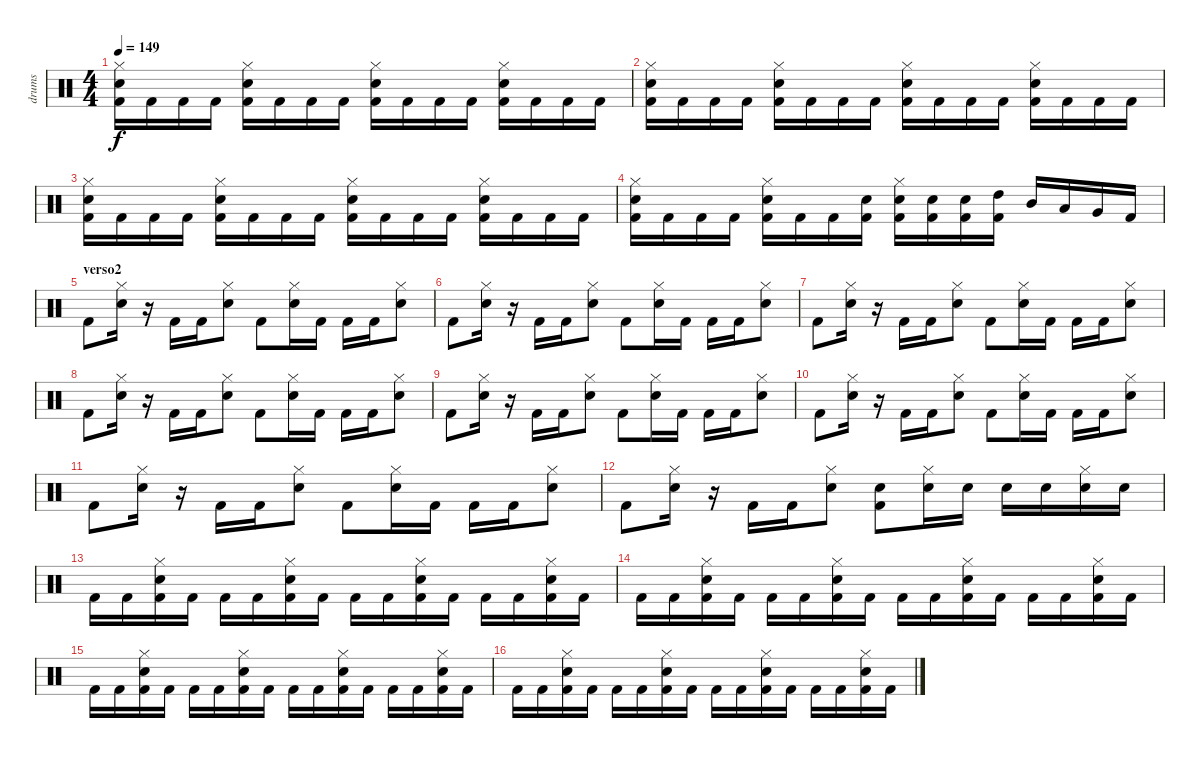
\track ("drums" "drums") {instrument percussion}
\staff {score}
\articulation defaults
\ts (4 4)
\tempo 149
\clef neutral
\ks c
("Kick (hit) 2" "Electric Snare (hit)" "Hi-Hat (closed)").16{dy f} "Kick (hit) 2".16 "Kick (hit) 2".16 "Kick (hit) 2".16 ("Kick (hit) 2" "Electric Snare (hit)" "Hi-Hat (closed)").16 "Kick (hit) 2".16 "Kick (hit) 2".16 "Kick (hit) 2".16 ("Kick (hit) 2" "Electric Snare (hit)" "Hi-Hat (closed)").16 "Kick (hit) 2".16 "Kick (hit) 2".16 "Kick (hit) 2".16 ("Kick (hit) 2" "Electric Snare (hit)" "Hi-Hat (closed)").16 "Kick (hit) 2".16 "Kick (hit) 2".16 "Kick (hit) 2".16 |
("Kick (hit) 2" "Electric Snare (hit)" "Hi-Hat (closed)").16 "Kick (hit) 2".16 "Kick (hit) 2".16 "Kick (hit) 2".16 ("Kick (hit) 2" "Electric Snare (hit)" "Hi-Hat (closed)").16 "Kick (hit) 2".16 "Kick (hit) 2".16 "Kick (hit) 2".16 ("Kick (hit) 2" "Electric Snare (hit)" "Hi-Hat (closed)").16 "Kick (hit) 2".16 "Kick (hit) 2".16 "Kick (hit) 2".16 ("Kick (hit) 2" "Electric Snare (hit)" "Hi-Hat (closed)").16 "Kick (hit) 2".16 "Kick (hit) 2".16 "Kick (hit) 2".16 |
("Kick (hit) 2" "Electric Snare (hit)" "Hi-Hat (closed)").16 "Kick (hit) 2".16 "Kick (hit) 2".16 "Kick (hit) 2".16 ("Kick (hit) 2" "Electric Snare (hit)" "Hi-Hat (closed)").16 "Kick (hit) 2".16 "Kick (hit) 2".16 "Kick (hit) 2".16 ("Kick (hit) 2" "Electric Snare (hit)" "Hi-Hat (closed)").16 "Kick (hit) 2".16 "Kick (hit) 2".16 "Kick (hit) 2".16 ("Kick (hit) 2" "Electric Snare (hit)" "Hi-Hat (closed)").16 "Kick (hit) 2".16 "Kick (hit) 2".16 "Kick (hit) 2".16 |
("Kick (hit) 2" "Electric Snare (hit)" "Hi-Hat (closed)").16 "Kick (hit) 2".16 "Kick (hit) 2".16 "Kick (hit) 2".16 ("Kick (hit) 2" "Electric Snare (hit)" "Hi-Hat (closed)").16 "Kick (hit) 2".16 "Kick (hit) 2".16 ("Kick (hit) 2" "Electric Snare (hit)").16 ("Kick (hit) 2" "Electric Snare (hit)" "Hi-Hat (closed)").16 ("Kick (hit) 2" "Electric Snare (hit)").16 ("Kick (hit) 2" "Electric Snare (hit)").16 ("Kick (hit) 2" "High Tom (hit)").16 "Mid Tom (hit)".16 "Low Tom (hit)".16 "Very Low Tom (hit)".16 "Kick (hit) 2".16 |
\section ("" "verso2")
"Kick (hit) 2".8 ("Electric Snare (hit)" "Hi-Hat (closed)").16 r.16 "Kick (hit) 2".16 "Kick (hit) 2".16 ("Electric Snare (hit)" "Hi-Hat (closed)").8 "Kick (hit) 2".8 ("Electric Snare (hit)" "Hi-Hat (closed)").16 "Kick (hit) 2".16 "Kick (hit) 2".16 "Kick (hit) 2".16 ("Electric Snare (hit)" "Hi-Hat (closed)").8 |
"Kick (hit) 2".8 ("Electric Snare (hit)" "Hi-Hat (closed)").16 r.16 "Kick (hit) 2".16 "Kick (hit) 2".16 ("Electric Snare (hit)" "Hi-Hat (closed)").8 "Kick (hit) 2".8 ("Electric Snare (hit)" "Hi-Hat (closed)").16 "Kick (hit) 2".16 "Kick (hit) 2".16 "Kick (hit) 2".16 ("Electric Snare (hit)" "Hi-Hat (closed)").8 |
"Kick (hit) 2".8 ("Electric Snare (hit)" "Hi-Hat (closed)").16 r.16 "Kick (hit) 2".16 "Kick (hit) 2".16 ("Electric Snare (hit)" "Hi-Hat (closed)").8 "Kick (hit) 2".8 ("Electric Snare (hit)" "Hi-Hat (closed)").16 "Kick (hit) 2".16 "Kick (hit) 2".16 "Kick (hit) 2".16 ("Electric Snare (hit)" "Hi-Hat (closed)").8 |
"Kick (hit) 2".8 ("Electric Snare (hit)" "Hi-Hat (closed)").16 r.16 "Kick (hit) 2".16 "Kick (hit) 2".16 ("Electric Snare (hit)" "Hi-Hat (closed)").8 "Kick (hit) 2".8 ("Electric Snare (hit)" "Hi-Hat (closed)").16 "Kick (hit) 2".16 "Kick (hit) 2".16 "Kick (hit) 2".16 ("Electric Snare (hit)" "Hi-Hat (closed)").8 |
"Kick (hit) 2".8 ("Electric Snare (hit)" "Hi-Hat (closed)").16 r.16 "Kick (hit) 2".16 "Kick (hit) 2".16 ("Electric Snare (hit)" "Hi-Hat (closed)").8 "Kick (hit) 2".8 ("Electric Snare (hit)" "Hi-Hat (closed)").16 "Kick (hit) 2".16 "Kick (hit) 2".16 "Kick (hit) 2".16 ("Electric Snare (hit)" "Hi-Hat (closed)").8 |
"Kick (hit) 2".8 ("Electric Snare (hit)" "Hi-Hat (closed)").16 r.16 "Kick (hit) 2".16 "Kick (hit) 2".16 ("Electric Snare (hit)" "Hi-Hat (closed)").8 "Kick (hit) 2".8 ("Electric Snare (hit)" "Hi-Hat (closed)").16 "Kick (hit) 2".16 "Kick (hit) 2".16 "Kick (hit) 2".16 ("Electric Snare (hit)" "Hi-Hat (closed)").8 |
"Kick (hit) 2".8 ("Electric Snare (hit)" "Hi-Hat (closed)").16 r.16 "Kick (hit) 2".16 "Kick (hit) 2".16 ("Electric Snare (hit)" "Hi-Hat (closed)").8 "Kick (hit) 2".8 ("Electric Snare (hit)" "Hi-Hat (closed)").16 "Kick (hit) 2".16 "Kick (hit) 2".16 "Kick (hit) 2".16 ("Electric Snare (hit)" "Hi-Hat (closed)").8 |
"Kick (hit) 2".8 ("Electric Snare (hit)" "Hi-Hat (closed)").16 r.16 "Kick (hit) 2".16 "Kick (hit) 2".16 ("Electric Snare (hit)" "Hi-Hat (closed)").8 ("Kick (hit) 2" "Electric Snare (hit)").8 ("Electric Snare (hit)" "Hi-Hat (closed)").16 "Electric Snare (hit)".16 "Electric Snare (hit)".16 "Electric Snare (hit)".16 ("Electric Snare (hit)" "Hi-Hat (closed)").16 "Electric Snare (hit)".16 |
"Kick (hit) 2".16 "Kick (hit) 2".16 ("Kick (hit) 2" "Electric Snare (hit)" "Hi-Hat (closed)").16 "Kick (hit) 2".16 "Kick (hit) 2".16 "Kick (hit) 2".16 ("Kick (hit) 2" "Electric Snare (hit)" "Hi-Hat (closed)").16 "Kick (hit) 2".16 "Kick (hit) 2".16 "Kick (hit) 2".16 ("Kick (hit) 2" "Electric Snare (hit)" "Hi-Hat (closed)").16 "Kick (hit) 2".16 "Kick (hit) 2".16 "Kick (hit) 2".16 ("Kick (hit) 2" "Electric Snare (hit)" "Hi-Hat (closed)").16 "Kick (hit) 2".16 |
"Kick (hit) 2".16 "Kick (hit) 2".16 ("Kick (hit) 2" "Electric Snare (hit)" "Hi-Hat (closed)").16 "Kick (hit) 2".16 "Kick (hit) 2".16 "Kick (hit) 2".16 ("Kick (hit) 2" "Electric Snare (hit)" "Hi-Hat (closed)").16 "Kick (hit) 2".16 "Kick (hit) 2".16 "Kick (hit) 2".16 ("Kick (hit) 2" "Electric Snare (hit)" "Hi-Hat (closed)").16 "Kick (hit) 2".16 "Kick (hit) 2".16 "Kick (hit) 2".16 ("Kick (hit) 2" "Electric Snare (hit)" "Hi-Hat (closed)").16 "Kick (hit) 2".16 |
"Kick (hit) 2".16 "Kick (hit) 2".16 ("Kick (hit) 2" "Electric Snare (hit)" "Hi-Hat (closed)").16 "Kick (hit) 2".16 "Kick (hit) 2".16 "Kick (hit) 2".16 ("Kick (hit) 2" "Electric Snare (hit)" "Hi-Hat (closed)").16 "Kick (hit) 2".16 "Kick (hit) 2".16 "Kick (hit) 2".16 ("Kick (hit) 2" "Electric Snare (hit)" "Hi-Hat (closed)").16 "Kick (hit) 2".16 "Kick (hit) 2".16 "Kick (hit) 2".16 ("Kick (hit) 2" "Electric Snare (hit)" "Hi-Hat (closed)").16 "Kick (hit) 2".16 |
"Kick (hit) 2".16 "Kick (hit) 2".16 ("Kick (hit) 2" "Electric Snare (hit)" "Hi-Hat (closed)").16 "Kick (hit) 2".16 "Kick (hit) 2".16 "Kick (hit) 2".16 ("Kick (hit) 2" "Electric Snare (hit)" "Hi-Hat (closed)").16 "Kick (hit) 2".16 "Kick (hit) 2".16 "Kick (hit) 2".16 ("Kick (hit) 2" "Electric Snare (hit)" "Hi-Hat (closed)").16 "Kick (hit) 2".16 "Kick (hit) 2".16 "Kick (hit) 2".16 ("Kick (hit) 2" "Electric Snare (hit)" "Hi-Hat (closed)").16 "Kick (hit) 2".16
